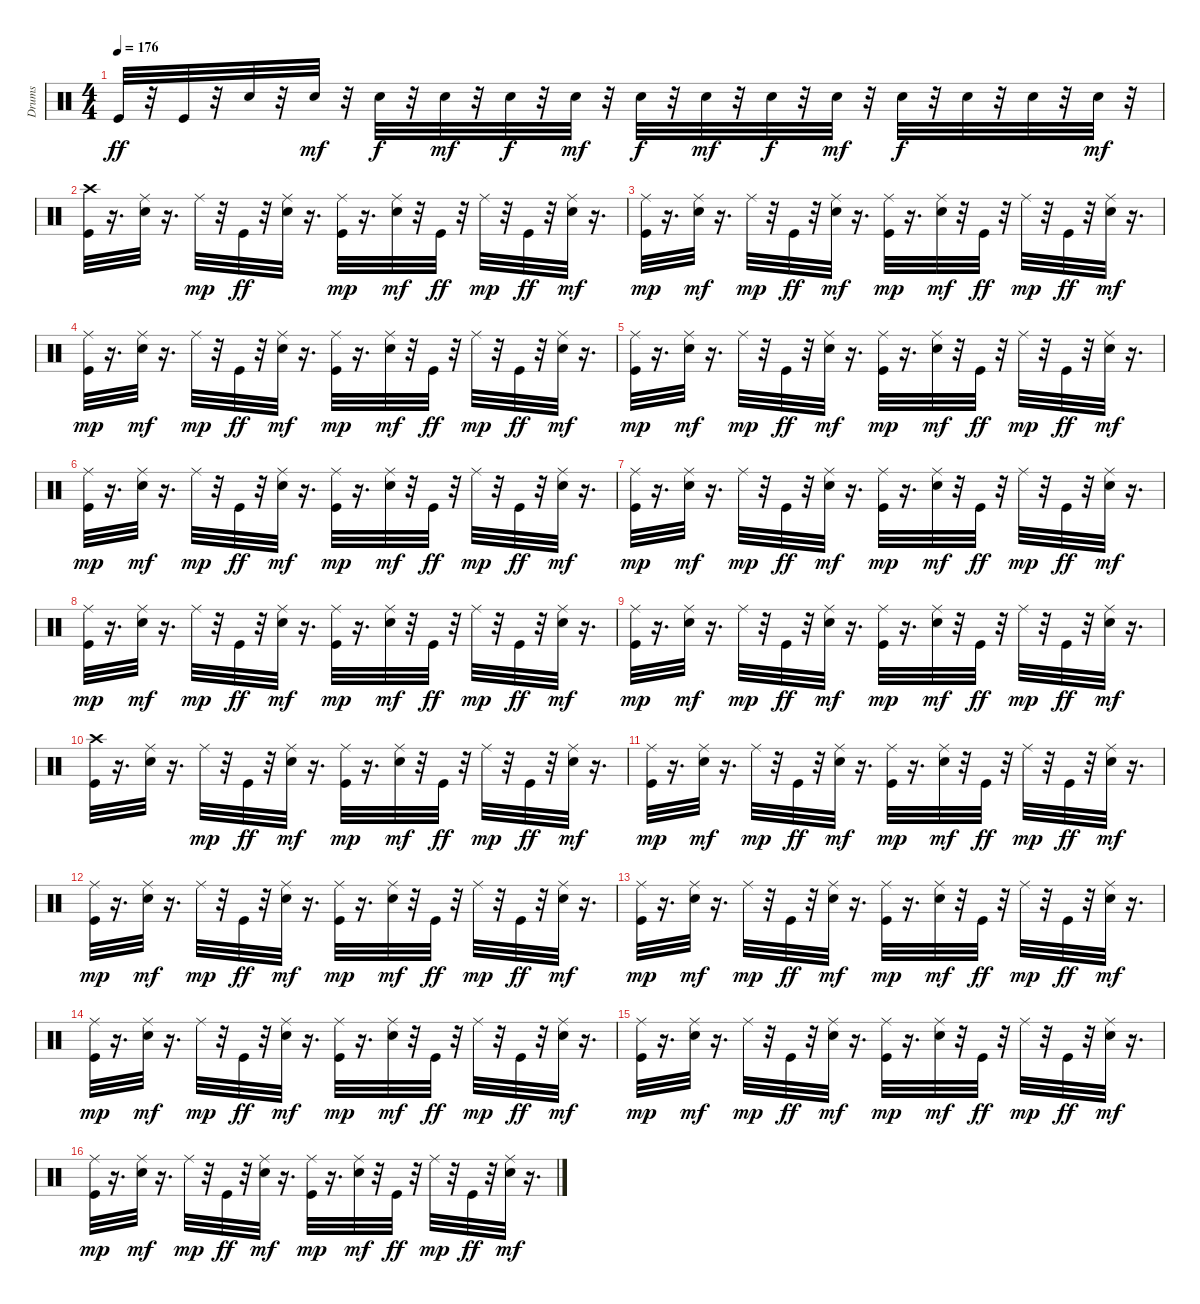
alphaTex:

\track ("Drums" "Drums") {instrument percussion}
\staff {score}
\articulation defaults
\ts (4 4)
\tempo 176
\clef neutral
\ks c "Kick (hit)".32{dy ff}
r.32 "Kick (hit)".32 r.32 "Snare (hit) 2".32 r.32 "Snare (hit) 2".32{dy mf} r.32 "Snare (hit) 2".32{dy f} r.32 "Snare (hit) 2".32{dy mf} r.32 "Snare (hit) 2".32{dy f} r.32 "Snare (hit) 2".32{dy mf} r.32 "Snare (hit) 2".32{dy f} r.32 "Snare (hit) 2".32{dy mf} r.32 "Snare (hit) 2".32{dy f} r.32 "Snare (hit) 2".32{dy mf} r.32 "Snare (hit) 2".32{dy f} r.32 "Snare (hit) 2".32 r.32 "Snare (hit) 2".32 r.32 "Snare (hit) 2".32{dy mf} r.32 |
("Kick (hit)" "Crash high (hit)").32 r.16{d} ("Snare (hit) 2" "Ride (middle)").32 r.16{d} "Ride (middle)".32{dy mp} r.32 "Kick (hit)".32{dy ff} r.32 ("Snare (hit) 2" "Ride (middle)").32 r.16{d} ("Kick (hit)" "Ride (middle)").32{dy mp} r.16{d} ("Snare (hit) 2" "Ride (middle)").32{dy mf} r.32 "Kick (hit)".32{dy ff} r.32 "Ride (middle)".32{dy mp} r.32 "Kick (hit)".32{dy ff} r.32 ("Snare (hit) 2" "Ride (middle)").32{dy mf} r.16{d} |
("Kick (hit)" "Ride (middle)").32{dy mp} r.16{d} ("Snare (hit) 2" "Ride (middle)").32{dy mf} r.16{d} "Ride (middle)".32{dy mp} r.32 "Kick (hit)".32{dy ff} r.32 ("Snare (hit) 2" "Ride (middle)").32{dy mf} r.16{d} ("Kick (hit)" "Ride (middle)").32{dy mp} r.16{d} ("Snare (hit) 2" "Ride (middle)").32{dy mf} r.32 "Kick (hit)".32{dy ff} r.32 "Ride (middle)".32{dy mp} r.32 "Kick (hit)".32{dy ff} r.32 ("Snare (hit) 2" "Ride (middle)").32{dy mf} r.16{d} |
("Kick (hit)" "Ride (middle)").32{dy mp} r.16{d} ("Snare (hit) 2" "Ride (middle)").32{dy mf} r.16{d} "Ride (middle)".32{dy mp} r.32 "Kick (hit)".32{dy ff} r.32 ("Snare (hit) 2" "Ride (middle)").32{dy mf} r.16{d} ("Kick (hit)" "Ride (middle)").32{dy mp} r.16{d} ("Snare (hit) 2" "Ride (middle)").32{dy mf} r.32 "Kick (hit)".32{dy ff} r.32 "Ride (middle)".32{dy mp} r.32 "Kick (hit)".32{dy ff} r.32 ("Snare (hit) 2" "Ride (middle)").32{dy mf} r.16{d} |
("Kick (hit)" "Ride (middle)").32{dy mp} r.16{d} ("Snare (hit) 2" "Ride (middle)").32{dy mf} r.16{d} "Ride (middle)".32{dy mp} r.32 "Kick (hit)".32{dy ff} r.32 ("Snare (hit) 2" "Ride (middle)").32{dy mf} r.16{d} ("Kick (hit)" "Ride (middle)").32{dy mp} r.16{d} ("Snare (hit) 2" "Ride (middle)").32{dy mf} r.32 "Kick (hit)".32{dy ff} r.32 "Ride (middle)".32{dy mp} r.32 "Kick (hit)".32{dy ff} r.32 ("Snare (hit) 2" "Ride (middle)").32{dy mf} r.16{d} |
("Kick (hit)" "Ride (middle)").32{dy mp} r.16{d} ("Snare (hit) 2" "Ride (middle)").32{dy mf} r.16{d} "Ride (middle)".32{dy mp} r.32 "Kick (hit)".32{dy ff} r.32 ("Snare (hit) 2" "Ride (middle)").32{dy mf} r.16{d} ("Kick (hit)" "Ride (middle)").32{dy mp} r.16{d} ("Snare (hit) 2" "Ride (middle)").32{dy mf} r.32 "Kick (hit)".32{dy ff} r.32 "Ride (middle)".32{dy mp} r.32 "Kick (hit)".32{dy ff} r.32 ("Snare (hit) 2" "Ride (middle)").32{dy mf} r.16{d} |
("Kick (hit)" "Ride (middle)").32{dy mp} r.16{d} ("Snare (hit) 2" "Ride (middle)").32{dy mf} r.16{d} "Ride (middle)".32{dy mp} r.32 "Kick (hit)".32{dy ff} r.32 ("Snare (hit) 2" "Ride (middle)").32{dy mf} r.16{d} ("Kick (hit)" "Ride (middle)").32{dy mp} r.16{d} ("Snare (hit) 2" "Ride (middle)").32{dy mf} r.32 "Kick (hit)".32{dy ff} r.32 "Ride (middle)".32{dy mp} r.32 "Kick (hit)".32{dy ff} r.32 ("Snare (hit) 2" "Ride (middle)").32{dy mf} r.16{d} |
("Kick (hit)" "Ride (middle)").32{dy mp} r.16{d} ("Snare (hit) 2" "Ride (middle)").32{dy mf} r.16{d} "Ride (middle)".32{dy mp} r.32 "Kick (hit)".32{dy ff} r.32 ("Snare (hit) 2" "Ride (middle)").32{dy mf} r.16{d} ("Kick (hit)" "Ride (middle)").32{dy mp} r.16{d} ("Snare (hit) 2" "Ride (middle)").32{dy mf} r.32 "Kick (hit)".32{dy ff} r.32 "Ride (middle)".32{dy mp} r.32 "Kick (hit)".32{dy ff} r.32 ("Snare (hit) 2" "Ride (middle)").32{dy mf} r.16{d} |
("Kick (hit)" "Ride (middle)").32{dy mp} r.16{d} ("Snare (hit) 2" "Ride (middle)").32{dy mf} r.16{d} "Ride (middle)".32{dy mp} r.32 "Kick (hit)".32{dy ff} r.32 ("Snare (hit) 2" "Ride (middle)").32{dy mf} r.16{d} ("Kick (hit)" "Ride (middle)").32{dy mp} r.16{d} ("Snare (hit) 2" "Ride (middle)").32{dy mf} r.32 "Kick (hit)".32{dy ff} r.32 "Ride (middle)".32{dy mp} r.32 "Kick (hit)".32{dy ff} r.32 ("Snare (hit) 2" "Ride (middle)").32{dy mf} r.16{d} |
("Kick (hit)" "Crash high (hit)").32 r.16{d} ("Snare (hit) 2" "Ride (middle)").32 r.16{d} "Ride (middle)".32{dy mp} r.32 "Kick (hit)".32{dy ff} r.32 ("Snare (hit) 2" "Ride (middle)").32{dy mf} r.16{d} ("Kick (hit)" "Ride (middle)").32{dy mp} r.16{d} ("Snare (hit) 2" "Ride (middle)").32{dy mf} r.32 "Kick (hit)".32{dy ff} r.32 "Ride (middle)".32{dy mp} r.32 "Kick (hit)".32{dy ff} r.32 ("Snare (hit) 2" "Ride (middle)").32{dy mf} r.16{d} |
("Kick (hit)" "Ride (middle)").32{dy mp} r.16{d} ("Snare (hit) 2" "Ride (middle)").32{dy mf} r.16{d} "Ride (middle)".32{dy mp} r.32 "Kick (hit)".32{dy ff} r.32 ("Snare (hit) 2" "Ride (middle)").32{dy mf} r.16{d} ("Kick (hit)" "Ride (middle)").32{dy mp} r.16{d} ("Snare (hit) 2" "Ride (middle)").32{dy mf} r.32 "Kick (hit)".32{dy ff} r.32 "Ride (middle)".32{dy mp} r.32 "Kick (hit)".32{dy ff} r.32 ("Snare (hit) 2" "Ride (middle)").32{dy mf} r.16{d} |
("Kick (hit)" "Ride (middle)").32{dy mp} r.16{d} ("Snare (hit) 2" "Ride (middle)").32{dy mf} r.16{d} "Ride (middle)".32{dy mp} r.32 "Kick (hit)".32{dy ff} r.32 ("Snare (hit) 2" "Ride (middle)").32{dy mf} r.16{d} ("Kick (hit)" "Ride (middle)").32{dy mp} r.16{d} ("Snare (hit) 2" "Ride (middle)").32{dy mf} r.32 "Kick (hit)".32{dy ff} r.32 "Ride (middle)".32{dy mp} r.32 "Kick (hit)".32{dy ff} r.32 ("Snare (hit) 2" "Ride (middle)").32{dy mf} r.16{d} |
("Kick (hit)" "Ride (middle)").32{dy mp} r.16{d} ("Snare (hit) 2" "Ride (middle)").32{dy mf} r.16{d} "Ride (middle)".32{dy mp} r.32 "Kick (hit)".32{dy ff} r.32 ("Snare (hit) 2" "Ride (middle)").32{dy mf} r.16{d} ("Kick (hit)" "Ride (middle)").32{dy mp} r.16{d} ("Snare (hit) 2" "Ride (middle)").32{dy mf} r.32 "Kick (hit)".32{dy ff} r.32 "Ride (middle)".32{dy mp} r.32 "Kick (hit)".32{dy ff} r.32 ("Snare (hit) 2" "Ride (middle)").32{dy mf} r.16{d} |
("Kick (hit)" "Ride (middle)").32{dy mp} r.16{d} ("Snare (hit) 2" "Ride (middle)").32{dy mf} r.16{d} "Ride (middle)".32{dy mp} r.32 "Kick (hit)".32{dy ff} r.32 ("Snare (hit) 2" "Ride (middle)").32{dy mf} r.16{d} ("Kick (hit)" "Ride (middle)").32{dy mp} r.16{d} ("Snare (hit) 2" "Ride (middle)").32{dy mf} r.32 "Kick (hit)".32{dy ff} r.32 "Ride (middle)".32{dy mp} r.32 "Kick (hit)".32{dy ff} r.32 ("Snare (hit) 2" "Ride (middle)").32{dy mf} r.16{d} |
("Kick (hit)" "Ride (middle)").32{dy mp} r.16{d} ("Snare (hit) 2" "Ride (middle)").32{dy mf} r.16{d} "Ride (middle)".32{dy mp} r.32 "Kick (hit)".32{dy ff} r.32 ("Snare (hit) 2" "Ride (middle)").32{dy mf} r.16{d} ("Kick (hit)" "Ride (middle)").32{dy mp} r.16{d} ("Snare (hit) 2" "Ride (middle)").32{dy mf} r.32 "Kick (hit)".32{dy ff} r.32 "Ride (middle)".32{dy mp} r.32 "Kick (hit)".32{dy ff} r.32 ("Snare (hit) 2" "Ride (middle)").32{dy mf} r.16{d} |
("Kick (hit)" "Ride (middle)").32{dy mp} r.16{d} ("Snare (hit) 2" "Ride (middle)").32{dy mf} r.16{d} "Ride (middle)".32{dy mp} r.32 "Kick (hit)".32{dy ff} r.32 ("Snare (hit) 2" "Ride (middle)").32{dy mf} r.16{d} ("Kick (hit)" "Ride (middle)").32{dy mp} r.16{d} ("Snare (hit) 2" "Ride (middle)").32{dy mf} r.32 "Kick (hit)".32{dy ff} r.32 "Ride (middle)".32{dy mp} r.32 "Kick (hit)".32{dy ff} r.32 ("Snare (hit) 2" "Ride (middle)").32{dy mf} r.16{d}
